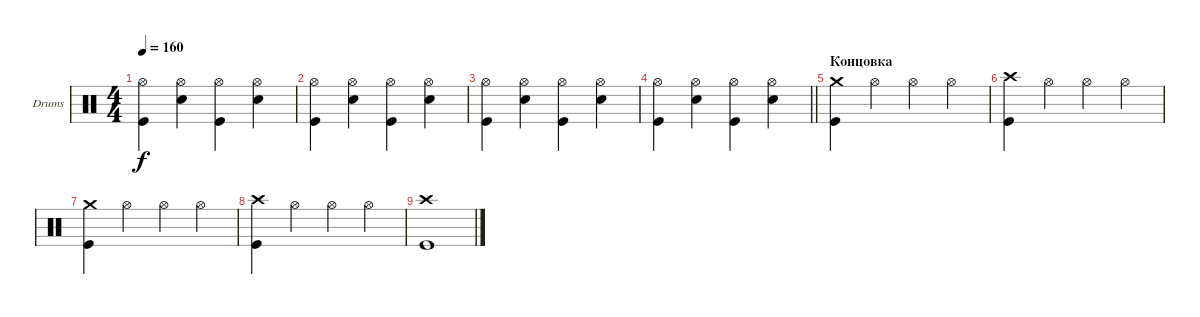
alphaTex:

\bracketExtendMode groupsimilarinstruments
\firstSystemTrackNameOrientation horizontal
\otherSystemsTrackNameOrientation horizontal
\track ("Drumkit" "Drums") {instrument percussion}
\staff {score}
\articulation defaults
\ts (4 4)
\tempo 160
\clef neutral
\ks c
("Hi-Hat (open)" "Kick (hit)").4{dy f} ("Hi-Hat (open)" "Snare (hit) 2").4 ("Hi-Hat (open)" "Kick (hit)").4 ("Hi-Hat (open)" "Snare (hit) 2").4 |
("Hi-Hat (open)" "Kick (hit)").4 ("Hi-Hat (open)" "Snare (hit) 2").4 ("Hi-Hat (open)" "Kick (hit)").4 ("Hi-Hat (open)" "Snare (hit) 2").4 |
("Hi-Hat (open)" "Kick (hit)").4 ("Hi-Hat (open)" "Snare (hit) 2").4 ("Hi-Hat (open)" "Kick (hit)").4 ("Hi-Hat (open)" "Snare (hit) 2").4 |
\barLineRight lightlight
("Hi-Hat (open)" "Kick (hit)").4 ("Hi-Hat (open)" "Snare (hit) 2").4 ("Hi-Hat (open)" "Kick (hit)").4 ("Hi-Hat (open)" "Snare (hit) 2").4 |
\section ("" "Концовка")
("Crash medium (hit)" "Kick (hit)").4 "Hi-Hat (open)".4 "Hi-Hat (open)".4 "Hi-Hat (open)".4 |
("Crash high (hit)" "Kick (hit)").4 "Hi-Hat (open)".4 "Hi-Hat (open)".4 "Hi-Hat (open)".4 |
("Crash medium (hit)" "Kick (hit)").4 "Hi-Hat (open)".4 "Hi-Hat (open)".4 "Hi-Hat (open)".4 |
("Crash high (hit)" "Kick (hit)").4 "Hi-Hat (open)".4 "Hi-Hat (open)".4 "Hi-Hat (open)".4 |
("Crash high (hit)" "Kick (hit)").1
